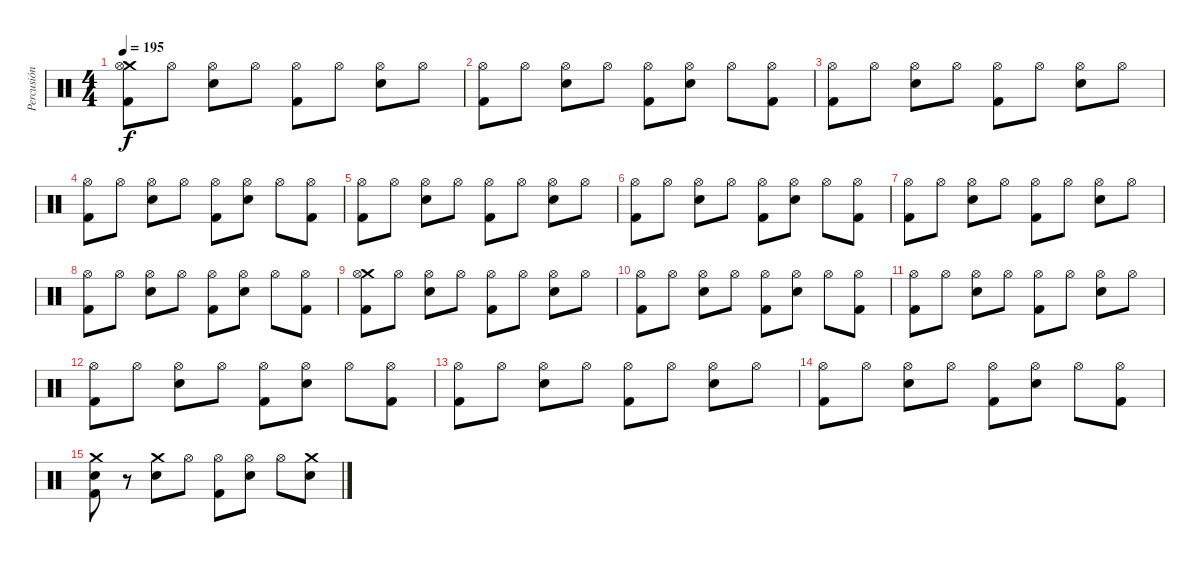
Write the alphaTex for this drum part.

\track ("Percusión" "Percusión") {instrument percussion}
\staff {score}
\articulation defaults
\ts (4 4)
\tempo 195
\clef neutral
\ks c
("Crash medium (hit)" "Hi-Hat (open)" "Kick (hit) 2").8{dy f} "Hi-Hat (open)".8 ("Hi-Hat (open)" "Snare (hit) 2").8 "Hi-Hat (open)".8 ("Hi-Hat (open)" "Kick (hit) 2").8 "Hi-Hat (open)".8 ("Hi-Hat (open)" "Snare (hit) 2").8 "Hi-Hat (open)".8 |
("Hi-Hat (open)" "Kick (hit) 2").8 "Hi-Hat (open)".8 ("Hi-Hat (open)" "Snare (hit) 2").8 "Hi-Hat (open)".8 ("Hi-Hat (open)" "Kick (hit) 2").8 ("Hi-Hat (open)" "Snare (hit) 2").8 "Hi-Hat (open)".8 ("Hi-Hat (open)" "Kick (hit) 2").8 |
("Hi-Hat (open)" "Kick (hit) 2").8 "Hi-Hat (open)".8 ("Hi-Hat (open)" "Snare (hit) 2").8 "Hi-Hat (open)".8 ("Hi-Hat (open)" "Kick (hit) 2").8 "Hi-Hat (open)".8 ("Hi-Hat (open)" "Snare (hit) 2").8 "Hi-Hat (open)".8 |
("Hi-Hat (open)" "Kick (hit) 2").8 "Hi-Hat (open)".8 ("Hi-Hat (open)" "Snare (hit) 2").8 "Hi-Hat (open)".8 ("Hi-Hat (open)" "Kick (hit) 2").8 ("Hi-Hat (open)" "Snare (hit) 2").8 "Hi-Hat (open)".8 ("Hi-Hat (open)" "Kick (hit) 2").8 |
("Hi-Hat (open)" "Kick (hit) 2").8 "Hi-Hat (open)".8 ("Hi-Hat (open)" "Snare (hit) 2").8 "Hi-Hat (open)".8 ("Hi-Hat (open)" "Kick (hit) 2").8 "Hi-Hat (open)".8 ("Hi-Hat (open)" "Snare (hit) 2").8 "Hi-Hat (open)".8 |
("Hi-Hat (open)" "Kick (hit) 2").8 "Hi-Hat (open)".8 ("Hi-Hat (open)" "Snare (hit) 2").8 "Hi-Hat (open)".8 ("Hi-Hat (open)" "Kick (hit) 2").8 ("Hi-Hat (open)" "Snare (hit) 2").8 "Hi-Hat (open)".8 ("Hi-Hat (open)" "Kick (hit) 2").8 |
("Hi-Hat (open)" "Kick (hit) 2").8 "Hi-Hat (open)".8 ("Hi-Hat (open)" "Snare (hit) 2").8 "Hi-Hat (open)".8 ("Hi-Hat (open)" "Kick (hit) 2").8 "Hi-Hat (open)".8 ("Hi-Hat (open)" "Snare (hit) 2").8 "Hi-Hat (open)".8 |
("Hi-Hat (open)" "Kick (hit) 2").8 "Hi-Hat (open)".8 ("Hi-Hat (open)" "Snare (hit) 2").8 "Hi-Hat (open)".8 ("Hi-Hat (open)" "Kick (hit) 2").8 ("Hi-Hat (open)" "Snare (hit) 2").8 "Hi-Hat (open)".8 ("Hi-Hat (open)" "Kick (hit) 2").8 |
("Crash medium (hit)" "Hi-Hat (open)" "Kick (hit) 2").8 "Hi-Hat (open)".8 ("Hi-Hat (open)" "Snare (hit) 2").8 "Hi-Hat (open)".8 ("Hi-Hat (open)" "Kick (hit) 2").8 "Hi-Hat (open)".8 ("Hi-Hat (open)" "Snare (hit) 2").8 "Hi-Hat (open)".8 |
("Hi-Hat (open)" "Kick (hit) 2").8 "Hi-Hat (open)".8 ("Hi-Hat (open)" "Snare (hit) 2").8 "Hi-Hat (open)".8 ("Hi-Hat (open)" "Kick (hit) 2").8 ("Hi-Hat (open)" "Snare (hit) 2").8 "Hi-Hat (open)".8 ("Hi-Hat (open)" "Kick (hit) 2").8 |
("Hi-Hat (open)" "Kick (hit) 2").8 "Hi-Hat (open)".8 ("Hi-Hat (open)" "Snare (hit) 2").8 "Hi-Hat (open)".8 ("Hi-Hat (open)" "Kick (hit) 2").8 "Hi-Hat (open)".8 ("Hi-Hat (open)" "Snare (hit) 2").8 "Hi-Hat (open)".8 |
("Hi-Hat (open)" "Kick (hit) 2").8 "Hi-Hat (open)".8 ("Hi-Hat (open)" "Snare (hit) 2").8 "Hi-Hat (open)".8 ("Hi-Hat (open)" "Kick (hit) 2").8 ("Hi-Hat (open)" "Snare (hit) 2").8 "Hi-Hat (open)".8 ("Hi-Hat (open)" "Kick (hit) 2").8 |
("Hi-Hat (open)" "Kick (hit) 2").8 "Hi-Hat (open)".8 ("Hi-Hat (open)" "Snare (hit) 2").8 "Hi-Hat (open)".8 ("Hi-Hat (open)" "Kick (hit) 2").8 "Hi-Hat (open)".8 ("Hi-Hat (open)" "Snare (hit) 2").8 "Hi-Hat (open)".8 |
("Hi-Hat (open)" "Kick (hit) 2").8 "Hi-Hat (open)".8 ("Hi-Hat (open)" "Snare (hit) 2").8 "Hi-Hat (open)".8 ("Hi-Hat (open)" "Kick (hit) 2").8 ("Hi-Hat (open)" "Snare (hit) 2").8 "Hi-Hat (open)".8 ("Hi-Hat (open)" "Kick (hit) 2").8 |
("Crash medium (hit)" "Snare (hit) 2" "Kick (hit) 2").8 r.8 ("Crash medium (hit)" "Snare (hit) 2").8 "Hi-Hat (open)".8 ("Hi-Hat (open)" "Kick (hit) 2").8 ("Hi-Hat (open)" "Snare (hit) 2").8 "Hi-Hat (open)".8 ("Crash medium (hit)" "Snare (hit) 2").8
